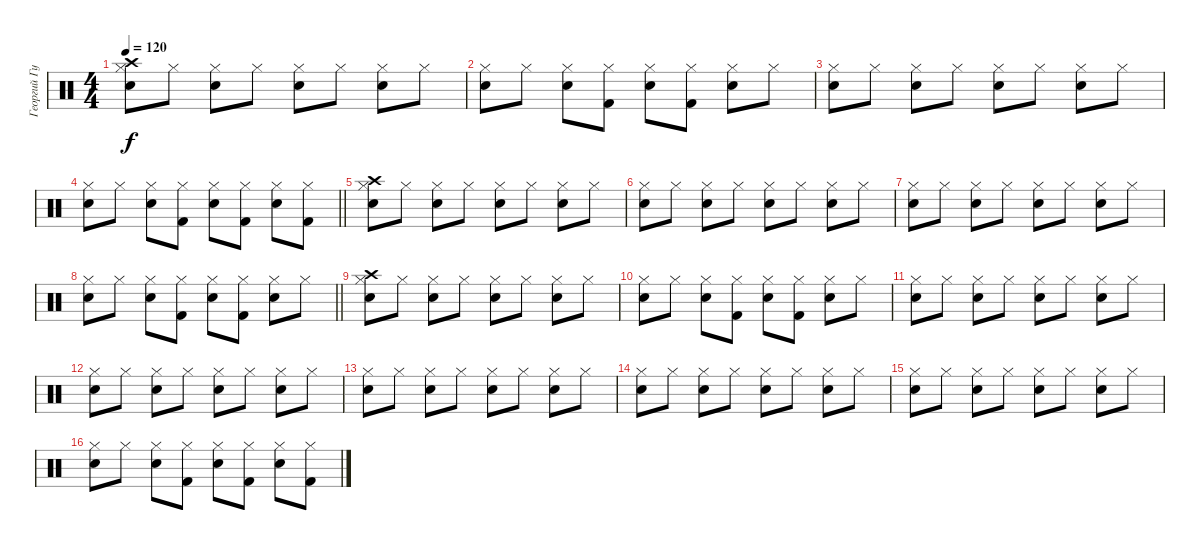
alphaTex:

\track ("Георгий Гурьянов" "Георгий Гу") {instrument percussion}
\staff {score}
\articulation defaults
\ts (4 4)
\tempo 120
\clef neutral
\ks c
("Hi-Hat (closed)" "Crash high (hit)" "Snare (hit) 2").8{dy f} "Hi-Hat (closed)".8 ("Hi-Hat (closed)" "Snare (hit) 2").8 "Hi-Hat (closed)".8 ("Hi-Hat (closed)" "Snare (hit) 2").8 "Hi-Hat (closed)".8 ("Hi-Hat (closed)" "Snare (hit) 2").8 "Hi-Hat (closed)".8 |
("Hi-Hat (closed)" "Snare (hit) 2").8 "Hi-Hat (closed)".8 ("Hi-Hat (closed)" "Snare (hit) 2").8 ("Hi-Hat (closed)" "Kick (hit) 2").8 ("Hi-Hat (closed)" "Snare (hit) 2").8 ("Hi-Hat (closed)" "Kick (hit) 2").8 ("Hi-Hat (closed)" "Snare (hit) 2").8 "Hi-Hat (closed)".8 |
("Hi-Hat (closed)" "Snare (hit) 2").8 "Hi-Hat (closed)".8 ("Hi-Hat (closed)" "Snare (hit) 2").8 "Hi-Hat (closed)".8 ("Hi-Hat (closed)" "Snare (hit) 2").8 "Hi-Hat (closed)".8 ("Hi-Hat (closed)" "Snare (hit) 2").8 "Hi-Hat (closed)".8 |
\barLineRight lightlight
("Hi-Hat (closed)" "Snare (hit) 2").8 "Hi-Hat (closed)".8 ("Hi-Hat (closed)" "Snare (hit) 2").8 ("Hi-Hat (closed)" "Kick (hit) 2").8 ("Hi-Hat (closed)" "Snare (hit) 2").8 ("Hi-Hat (closed)" "Kick (hit) 2").8 ("Hi-Hat (closed)" "Snare (hit) 2").8 ("Hi-Hat (closed)" "Kick (hit) 2").8 |
("Hi-Hat (closed)" "Crash high (hit)" "Snare (hit) 2").8 "Hi-Hat (closed)".8 ("Hi-Hat (closed)" "Snare (hit) 2").8 "Hi-Hat (closed)".8 ("Hi-Hat (closed)" "Snare (hit) 2").8 "Hi-Hat (closed)".8 ("Hi-Hat (closed)" "Snare (hit) 2").8 "Hi-Hat (closed)".8 |
("Hi-Hat (closed)" "Snare (hit) 2").8 "Hi-Hat (closed)".8 ("Hi-Hat (closed)" "Snare (hit) 2").8 "Hi-Hat (closed)".8 ("Hi-Hat (closed)" "Snare (hit) 2").8 "Hi-Hat (closed)".8 ("Hi-Hat (closed)" "Snare (hit) 2").8 "Hi-Hat (closed)".8 |
("Hi-Hat (closed)" "Snare (hit) 2").8 "Hi-Hat (closed)".8 ("Hi-Hat (closed)" "Snare (hit) 2").8 "Hi-Hat (closed)".8 ("Hi-Hat (closed)" "Snare (hit) 2").8 "Hi-Hat (closed)".8 ("Hi-Hat (closed)" "Snare (hit) 2").8 "Hi-Hat (closed)".8 |
\barLineRight lightlight
("Hi-Hat (closed)" "Snare (hit) 2").8 "Hi-Hat (closed)".8 ("Hi-Hat (closed)" "Snare (hit) 2").8 ("Hi-Hat (closed)" "Kick (hit) 2").8 ("Hi-Hat (closed)" "Snare (hit) 2").8 ("Hi-Hat (closed)" "Kick (hit) 2").8 ("Hi-Hat (closed)" "Snare (hit) 2").8 "Hi-Hat (closed)".8 |
("Hi-Hat (closed)" "Crash high (hit)" "Snare (hit) 2").8 "Hi-Hat (closed)".8 ("Hi-Hat (closed)" "Snare (hit) 2").8 "Hi-Hat (closed)".8 ("Hi-Hat (closed)" "Snare (hit) 2").8 "Hi-Hat (closed)".8 ("Hi-Hat (closed)" "Snare (hit) 2").8 "Hi-Hat (closed)".8 |
("Hi-Hat (closed)" "Snare (hit) 2").8 "Hi-Hat (closed)".8 ("Hi-Hat (closed)" "Snare (hit) 2").8 ("Hi-Hat (closed)" "Kick (hit) 2").8 ("Hi-Hat (closed)" "Snare (hit) 2").8 ("Hi-Hat (closed)" "Kick (hit) 2").8 ("Hi-Hat (closed)" "Snare (hit) 2").8 "Hi-Hat (closed)".8 |
("Hi-Hat (closed)" "Snare (hit) 2").8 "Hi-Hat (closed)".8 ("Hi-Hat (closed)" "Snare (hit) 2").8 "Hi-Hat (closed)".8 ("Hi-Hat (closed)" "Snare (hit) 2").8 "Hi-Hat (closed)".8 ("Hi-Hat (closed)" "Snare (hit) 2").8 "Hi-Hat (closed)".8 |
("Hi-Hat (closed)" "Snare (hit) 2").8 "Hi-Hat (closed)".8 ("Hi-Hat (closed)" "Snare (hit) 2").8 "Hi-Hat (closed)".8 ("Hi-Hat (closed)" "Snare (hit) 2").8 "Hi-Hat (closed)".8 ("Hi-Hat (closed)" "Snare (hit) 2").8 "Hi-Hat (closed)".8 |
("Hi-Hat (closed)" "Snare (hit) 2").8 "Hi-Hat (closed)".8 ("Hi-Hat (closed)" "Snare (hit) 2").8 "Hi-Hat (closed)".8 ("Hi-Hat (closed)" "Snare (hit) 2").8 "Hi-Hat (closed)".8 ("Hi-Hat (closed)" "Snare (hit) 2").8 "Hi-Hat (closed)".8 |
("Hi-Hat (closed)" "Snare (hit) 2").8 "Hi-Hat (closed)".8 ("Hi-Hat (closed)" "Snare (hit) 2").8 "Hi-Hat (closed)".8 ("Hi-Hat (closed)" "Snare (hit) 2").8 "Hi-Hat (closed)".8 ("Hi-Hat (closed)" "Snare (hit) 2").8 "Hi-Hat (closed)".8 |
("Hi-Hat (closed)" "Snare (hit) 2").8 "Hi-Hat (closed)".8 ("Hi-Hat (closed)" "Snare (hit) 2").8 "Hi-Hat (closed)".8 ("Hi-Hat (closed)" "Snare (hit) 2").8 "Hi-Hat (closed)".8 ("Hi-Hat (closed)" "Snare (hit) 2").8 "Hi-Hat (closed)".8 |
("Hi-Hat (closed)" "Snare (hit) 2").8 "Hi-Hat (closed)".8 ("Hi-Hat (closed)" "Snare (hit) 2").8 ("Hi-Hat (closed)" "Kick (hit) 2").8 ("Hi-Hat (closed)" "Snare (hit) 2").8 ("Hi-Hat (closed)" "Kick (hit) 2").8 ("Hi-Hat (closed)" "Snare (hit) 2").8 ("Hi-Hat (closed)" "Kick (hit) 2").8
